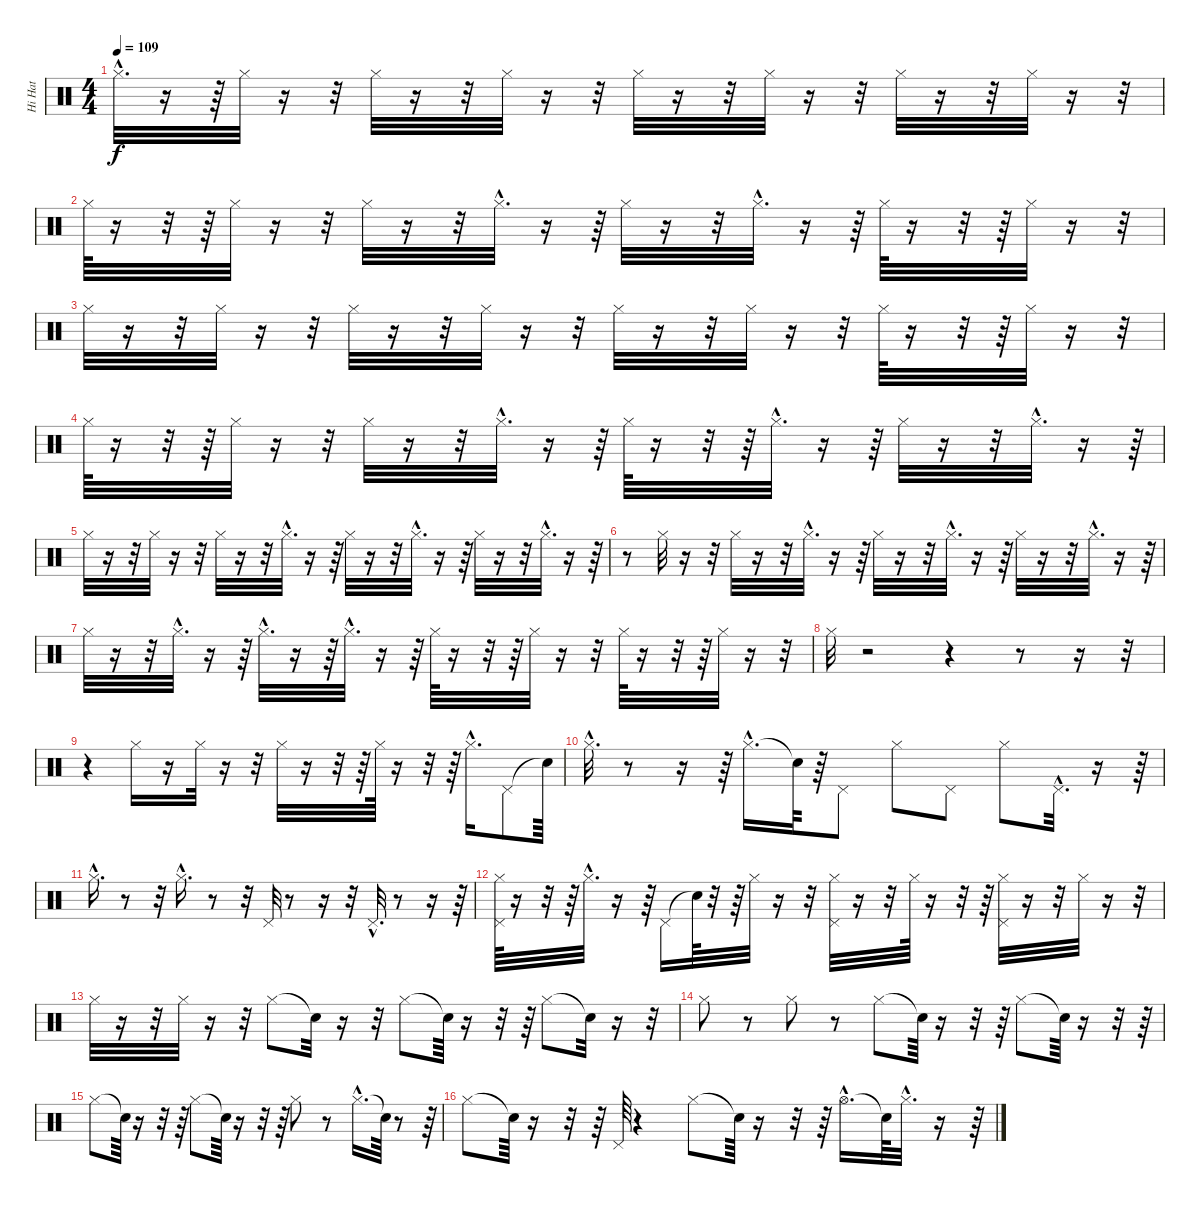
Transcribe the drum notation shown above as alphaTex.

\track ("Hi Hat" "Hi Hat") {instrument percussion}
\staff {score}
\articulation defaults
\ts (4 4)
\tempo 109
\clef neutral
\ks c "Hi-Hat (closed)"{hac}.32{d dy f}
r.16 r.64 "Hi-Hat (closed)".32 r.16 r.32 "Hi-Hat (closed)".32 r.16 r.32 "Hi-Hat (closed)".32 r.16 r.32 "Hi-Hat (closed)".32 r.16 r.32 "Hi-Hat (closed)".32 r.16 r.32 "Hi-Hat (closed)".32 r.16 r.32 "Hi-Hat (closed)".32 r.16 r.32 |
"Hi-Hat (closed)".64 r.16 r.32 r.64 "Hi-Hat (closed)".32 r.16 r.32 "Hi-Hat (closed)".32 r.16 r.32 "Hi-Hat (closed)"{hac}.32{d} r.16 r.64 "Hi-Hat (closed)".32 r.16 r.32 "Hi-Hat (closed)"{hac}.32{d} r.16 r.64 "Hi-Hat (closed)".64 r.16 r.32 r.64 "Hi-Hat (closed)".32 r.16 r.32 |
"Hi-Hat (closed)".32 r.16 r.32 "Hi-Hat (closed)".32 r.16 r.32 "Hi-Hat (closed)".32 r.16 r.32 "Hi-Hat (closed)".32 r.16 r.32 "Hi-Hat (closed)".32 r.16 r.32 "Hi-Hat (closed)".32 r.16 r.32 "Hi-Hat (closed)".64 r.16 r.32 r.64 "Hi-Hat (closed)".32 r.16 r.32 |
"Hi-Hat (closed)".64 r.16 r.32 r.64 "Hi-Hat (closed)".32 r.16 r.32 "Hi-Hat (closed)".32 r.16 r.32 "Hi-Hat (closed)"{hac}.32{d} r.16 r.64 "Hi-Hat (closed)".64 r.16 r.32 r.64 "Hi-Hat (closed)"{hac}.32{d} r.16 r.64 "Hi-Hat (closed)".32 r.16 r.32 "Hi-Hat (closed)"{hac}.32{d} r.16 r.64 |
"Hi-Hat (closed)".32 r.16 r.32 "Hi-Hat (closed)".32 r.16 r.32 "Hi-Hat (closed)".32 r.16 r.32 "Hi-Hat (closed)"{hac}.32{d} r.16 r.64 "Hi-Hat (closed)".32 r.16 r.32 "Hi-Hat (closed)"{hac}.32{d} r.16 r.64 "Hi-Hat (closed)".32 r.16 r.32 "Hi-Hat (closed)"{hac}.32{d} r.16 r.64 |
r.8 "Hi-Hat (closed)".32 r.16 r.32 "Hi-Hat (closed)".32 r.16 r.32 "Hi-Hat (closed)"{hac}.32{d} r.16 r.64 "Hi-Hat (closed)".32 r.16 r.32 "Hi-Hat (closed)"{hac}.32{d} r.16 r.64 "Hi-Hat (closed)".32 r.16 r.32 "Hi-Hat (closed)"{hac}.32{d} r.16 r.64 |
"Hi-Hat (closed)".32 r.16 r.32 "Hi-Hat (closed)"{hac}.32{d} r.16 r.64 "Hi-Hat (closed)"{hac}.32{d} r.16 r.64 "Hi-Hat (closed)"{hac}.32{d} r.16 r.64 "Hi-Hat (closed)".64 r.16 r.32 r.64 "Hi-Hat (closed)".32 r.16 r.32 "Hi-Hat (closed)".64 r.16 r.32 r.64 "Hi-Hat (closed)".32 r.16 r.32 |
"Hi-Hat (closed)".32 r.2 r.4 r.8 r.16 r.32 |
r.4 "Hi-Hat (closed)".16 r.16 "Hi-Hat (closed)".32 r.16 r.32 "Hi-Hat (closed)".32 r.16 r.32 r.64 "Hi-Hat (closed)".64 r.16 r.32 r.64 "Hi-Hat (closed)"{hac}.16{d} "Pedal Hi-Hat (hit)".8 "Snare (hit)"{t}.64 |
"Hi-Hat (closed)"{hac}.32{d} r.8 r.16 r.64 "Hi-Hat (closed)"{hac}.16{d} "Snare (hit)"{t}.64 r.64 "Pedal Hi-Hat (hit)".8 "Hi-Hat (closed)".8 "Pedal Hi-Hat (hit)".8 "Hi-Hat (closed)".8 "Pedal Hi-Hat (hit)"{hac}.32{d} r.16 r.64 |
"Hi-Hat (closed)"{hac}.16{d} r.8 r.32 "Hi-Hat (closed)"{hac}.16{d} r.8 r.32 "Pedal Hi-Hat (hit)".32 r.8 r.16 r.32 "Pedal Hi-Hat (hit)"{hac}.32{d} r.8 r.16 r.64 |
("Hi-Hat (closed)" "Pedal Hi-Hat (hit)").64 r.16 r.32 r.64 "Hi-Hat (closed)"{hac}.32{d} r.16 r.64 "Pedal Hi-Hat (hit)".16 "Snare (hit)"{t}.64 r.32 r.64 "Hi-Hat (closed)".32 r.16 r.32 ("Hi-Hat (closed)" "Pedal Hi-Hat (hit)").32 r.16 r.32 "Hi-Hat (closed)".64 r.16 r.32 r.64 ("Hi-Hat (closed)" "Pedal Hi-Hat (hit)").32 r.16 r.32 "Hi-Hat (closed)".32 r.16 r.32 |
"Hi-Hat (closed)".32 r.16 r.32 "Hi-Hat (closed)".32 r.16 r.32 "Hi-Hat (closed)".8 "Snare (hit)"{t}.32 r.16 r.32 "Hi-Hat (closed)".8 "Snare (hit)"{t}.64 r.16 r.32 r.64 "Hi-Hat (closed)".8 "Snare (hit)"{t}.32 r.16 r.32 |
"Hi-Hat (closed)".8 r.8 "Hi-Hat (closed)".8 r.8 "Hi-Hat (closed)".8 "Snare (hit)"{t}.64 r.16 r.32 r.64 "Hi-Hat (closed)".8 "Snare (hit)"{t}.64 r.16 r.32 r.64 |
"Hi-Hat (closed)".8 "Snare (hit)"{t}.64 r.16 r.32 r.64 "Hi-Hat (closed)".8 "Snare (hit)"{t}.64 r.16 r.32 r.64 "Hi-Hat (closed)".8 r.8 "Hi-Hat (closed)"{hac}.16{d} "Snare (hit)"{t}.64 r.8 r.64 |
"Hi-Hat (closed)".8 "Snare (hit)"{t}.64 r.16 r.32 r.64 "Pedal Hi-Hat (hit)".64 r.4 "Hi-Hat (closed)".8 "Snare (hit)"{t}.64 r.16 r.32 r.64 "Hi-Hat (open)"{hac}.16{d} "Snare (hit)"{t}.64 "Hi-Hat (closed)"{hac}.32{d} r.16 r.64
